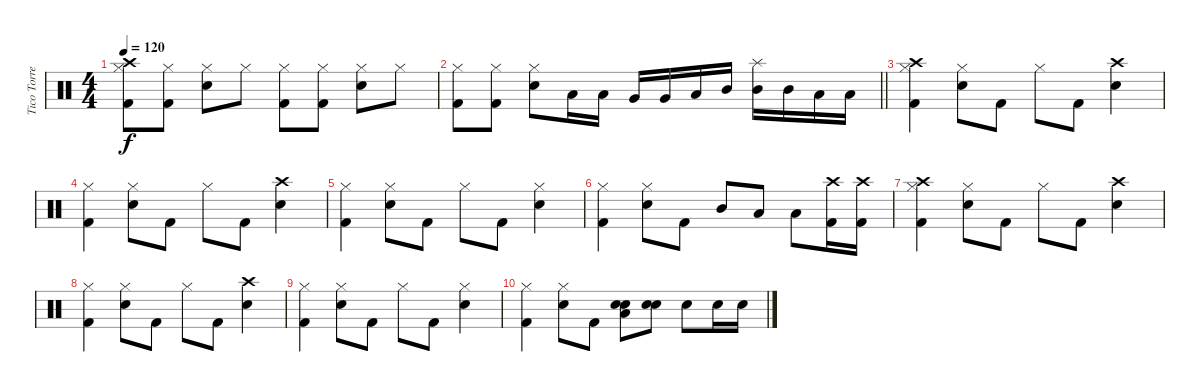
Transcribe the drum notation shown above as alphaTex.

\track ("Tico Torres (Drums)" "Tico Torre") {instrument percussion}
\staff {score}
\articulation defaults
\ts (4 4)
\tempo 120
\clef neutral
\ks c
("Crash high (hit)" "Hi-Hat (closed)" "Kick (hit) 2").8{dy f} ("Hi-Hat (closed)" "Kick (hit) 2").8 ("Hi-Hat (closed)" "Electric Snare (hit)").8 "Hi-Hat (closed)".8 ("Hi-Hat (closed)" "Kick (hit) 2").8 ("Hi-Hat (closed)" "Kick (hit) 2").8 ("Hi-Hat (closed)" "Electric Snare (hit)").8 "Hi-Hat (closed)".8 |
\barLineRight lightlight
("Hi-Hat (closed)" "Kick (hit) 2").8 ("Hi-Hat (closed)" "Kick (hit) 2").8 ("Hi-Hat (closed)" "Electric Snare (hit)").8 "Low Tom (hit)".16 "Low Tom (hit)".16 "Very Low Tom (hit)".16 "Very Low Tom (hit)".16 "Low Tom (hit)".16 "Mid Tom (hit)".16 ("Splash (hit)" "Mid Tom (hit)").16 "Mid Tom (hit)".16 "Low Tom (hit)".16 "Low Tom (hit)".16 |
("Crash high (hit)" "Hi-Hat (closed)" "Kick (hit) 2").4 ("Hi-Hat (closed)" "Electric Snare (hit)").8 "Kick (hit) 2".8 "Hi-Hat (closed)".8 "Kick (hit) 2".8 ("Crash high (hit)" "Electric Snare (hit)").4 |
("Hi-Hat (closed)" "Kick (hit) 2").4 ("Hi-Hat (closed)" "Electric Snare (hit)").8 "Kick (hit) 2".8 "Hi-Hat (closed)".8 "Kick (hit) 2".8 ("Crash high (hit)" "Electric Snare (hit)").4 |
("Hi-Hat (closed)" "Kick (hit) 2").4 ("Hi-Hat (closed)" "Electric Snare (hit)").8 "Kick (hit) 2".8 "Hi-Hat (closed)".8 "Kick (hit) 2".8 ("Hi-Hat (closed)" "Electric Snare (hit)").4 |
("Hi-Hat (closed)" "Kick (hit) 2").4 ("Hi-Hat (closed)" "Electric Snare (hit)").8 "Kick (hit) 2".8 "Mid Tom (hit)".8 "Low Tom (hit)".8 "Low Tom (hit)".8 ("Crash high (hit)" "Kick (hit) 2").16 ("Crash high (hit)" "Kick (hit) 2").16 |
("Crash high (hit)" "Hi-Hat (closed)" "Kick (hit) 2").4 ("Hi-Hat (closed)" "Electric Snare (hit)").8 "Kick (hit) 2".8 "Hi-Hat (closed)".8 "Kick (hit) 2".8 ("Crash high (hit)" "Electric Snare (hit)").4 |
("Hi-Hat (closed)" "Kick (hit) 2").4 ("Hi-Hat (closed)" "Electric Snare (hit)").8 "Kick (hit) 2".8 "Hi-Hat (closed)".8 "Kick (hit) 2".8 ("Crash high (hit)" "Electric Snare (hit)").4 |
("Hi-Hat (closed)" "Kick (hit) 2").4 ("Hi-Hat (closed)" "Electric Snare (hit)").8 "Kick (hit) 2".8 "Hi-Hat (closed)".8 "Kick (hit) 2".8 ("Hi-Hat (closed)" "Electric Snare (hit)").4 |
("Hi-Hat (closed)" "Kick (hit) 2").4 ("Hi-Hat (closed)" "Electric Snare (hit)").8 "Kick (hit) 2".8 ("Low Floor Tom (hit)" "Electric Snare (hit)" "Electric Snare (hit)").8{bd 120} ("Electric Snare (hit)" "Electric Snare (hit)").8{bd 120} "Electric Snare (hit)".8 "Electric Snare (hit)".16 "Electric Snare (hit)".16
